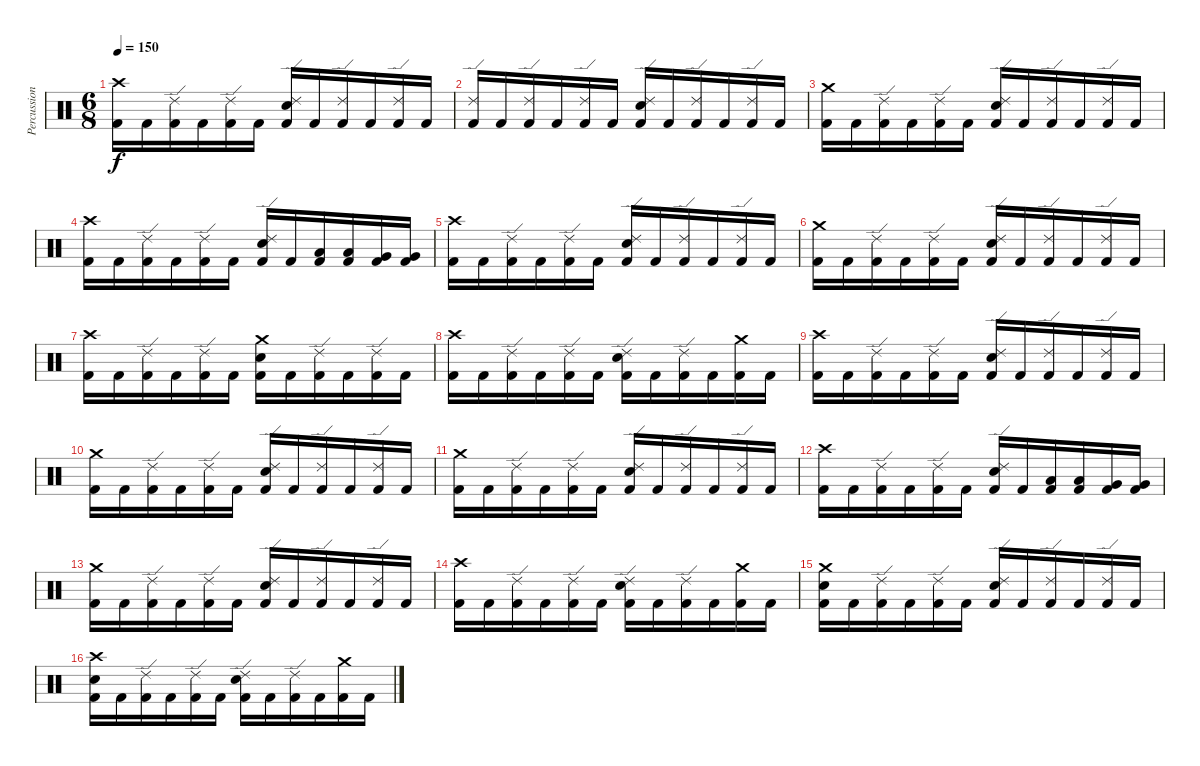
\track ("Percussion" "Percussion") {instrument percussion}
\staff {score}
\articulation defaults
\ts (6 8)
\tempo 150
\clef neutral
\ks c
("Crash high (hit)" "Kick (hit) 2").16{dy f} "Kick (hit) 2".16 ("Ride (edge) 2" "Kick (hit) 2").16 "Kick (hit) 2".16 ("Ride (edge) 2" "Kick (hit) 2").16 "Kick (hit) 2".16 ("Ride (edge) 2" "Electric Snare (hit)" "Kick (hit) 2").16 "Kick (hit) 2".16 ("Ride (edge) 2" "Kick (hit) 2").16 "Kick (hit) 2".16 ("Ride (edge) 2" "Kick (hit) 2").16 "Kick (hit) 2".16 |
("Ride (edge) 2" "Kick (hit) 2").16 "Kick (hit) 2".16 ("Ride (edge) 2" "Kick (hit) 2").16 "Kick (hit) 2".16 ("Ride (edge) 2" "Kick (hit) 2").16 "Kick (hit) 2".16 ("Ride (edge) 2" "Electric Snare (hit)" "Kick (hit) 2").16 "Kick (hit) 2".16 ("Ride (edge) 2" "Kick (hit) 2").16 "Kick (hit) 2".16 ("Ride (edge) 2" "Kick (hit) 2").16 "Kick (hit) 2".16 |
("Crash medium (hit)" "Kick (hit) 2").16 "Kick (hit) 2".16 ("Ride (edge) 2" "Kick (hit) 2").16 "Kick (hit) 2".16 ("Ride (edge) 2" "Kick (hit) 2").16 "Kick (hit) 2".16 ("Ride (edge) 2" "Electric Snare (hit)" "Kick (hit) 2").16 "Kick (hit) 2".16 ("Ride (edge) 2" "Kick (hit) 2").16 "Kick (hit) 2".16 ("Ride (edge) 2" "Kick (hit) 2").16 "Kick (hit) 2".16 |
("Crash high (hit)" "Kick (hit) 2").16 "Kick (hit) 2".16 ("Ride (edge) 2" "Kick (hit) 2").16 "Kick (hit) 2".16 ("Ride (edge) 2" "Kick (hit) 2").16 "Kick (hit) 2".16 ("Ride (edge) 2" "Electric Snare (hit)" "Kick (hit) 2").16 "Kick (hit) 2".16 ("Low Tom (hit)" "Kick (hit) 2").16 ("Low Tom (hit)" "Kick (hit) 2").16 ("Very Low Tom (hit)" "Kick (hit) 2").16 ("Very Low Tom (hit)" "Kick (hit) 2").16 |
("Crash high (hit)" "Kick (hit) 2").16 "Kick (hit) 2".16 ("Ride (edge) 2" "Kick (hit) 2").16 "Kick (hit) 2".16 ("Ride (edge) 2" "Kick (hit) 2").16 "Kick (hit) 2".16 ("Ride (edge) 2" "Electric Snare (hit)" "Kick (hit) 2").16 "Kick (hit) 2".16 ("Ride (edge) 2" "Kick (hit) 2").16 "Kick (hit) 2".16 ("Ride (edge) 2" "Kick (hit) 2").16 "Kick (hit) 2".16 |
("Crash medium (hit)" "Kick (hit) 2").16 "Kick (hit) 2".16 ("Ride (edge) 2" "Kick (hit) 2").16 "Kick (hit) 2".16 ("Ride (edge) 2" "Kick (hit) 2").16 "Kick (hit) 2".16 ("Ride (edge) 2" "Electric Snare (hit)" "Kick (hit) 2").16 "Kick (hit) 2".16 ("Ride (edge) 2" "Kick (hit) 2").16 "Kick (hit) 2".16 ("Ride (edge) 2" "Kick (hit) 2").16 "Kick (hit) 2".16 |
("Crash high (hit)" "Kick (hit) 2").16 "Kick (hit) 2".16 ("Ride (edge) 2" "Kick (hit) 2").16 "Kick (hit) 2".16 ("Ride (edge) 2" "Kick (hit) 2").16 "Kick (hit) 2".16 ("Crash medium (hit)" "Electric Snare (hit)" "Kick (hit) 2").16 "Kick (hit) 2".16 ("Ride (edge) 2" "Kick (hit) 2").16 "Kick (hit) 2".16 ("Ride (edge) 2" "Kick (hit) 2").16 "Kick (hit) 2".16 |
("Crash high (hit)" "Kick (hit) 2").16 "Kick (hit) 2".16 ("Ride (edge) 2" "Kick (hit) 2").16 "Kick (hit) 2".16 ("Ride (edge) 2" "Kick (hit) 2").16 "Kick (hit) 2".16 ("Ride (edge) 2" "Electric Snare (hit)" "Kick (hit) 2").16 "Kick (hit) 2".16 ("Ride (edge) 2" "Kick (hit) 2").16 "Kick (hit) 2".16 ("Crash medium (hit)" "Kick (hit) 2").16 "Kick (hit) 2".16 |
("Crash high (hit)" "Kick (hit) 2").16 "Kick (hit) 2".16 ("Ride (edge) 2" "Kick (hit) 2").16 "Kick (hit) 2".16 ("Ride (edge) 2" "Kick (hit) 2").16 "Kick (hit) 2".16 ("Ride (edge) 2" "Electric Snare (hit)" "Kick (hit) 2").16 "Kick (hit) 2".16 ("Ride (edge) 2" "Kick (hit) 2").16 "Kick (hit) 2".16 ("Ride (edge) 2" "Kick (hit) 2").16 "Kick (hit) 2".16 |
("Crash medium (hit)" "Kick (hit) 2").16 "Kick (hit) 2".16 ("Ride (edge) 2" "Kick (hit) 2").16 "Kick (hit) 2".16 ("Ride (edge) 2" "Kick (hit) 2").16 "Kick (hit) 2".16 ("Ride (edge) 2" "Electric Snare (hit)" "Kick (hit) 2").16 "Kick (hit) 2".16 ("Ride (edge) 2" "Kick (hit) 2").16 "Kick (hit) 2".16 ("Ride (edge) 2" "Kick (hit) 2").16 "Kick (hit) 2".16 |
("Crash medium (hit)" "Kick (hit) 2").16 "Kick (hit) 2".16 ("Ride (edge) 2" "Kick (hit) 2").16 "Kick (hit) 2".16 ("Ride (edge) 2" "Kick (hit) 2").16 "Kick (hit) 2".16 ("Ride (edge) 2" "Electric Snare (hit)" "Kick (hit) 2").16 "Kick (hit) 2".16 ("Ride (edge) 2" "Kick (hit) 2").16 "Kick (hit) 2".16 ("Ride (edge) 2" "Kick (hit) 2").16 "Kick (hit) 2".16 |
("Crash high (hit)" "Kick (hit) 2").16 "Kick (hit) 2".16 ("Ride (edge) 2" "Kick (hit) 2").16 "Kick (hit) 2".16 ("Ride (edge) 2" "Kick (hit) 2").16 "Kick (hit) 2".16 ("Ride (edge) 2" "Electric Snare (hit)" "Kick (hit) 2").16 "Kick (hit) 2".16 ("Low Tom (hit)" "Kick (hit) 2").16 ("Low Tom (hit)" "Kick (hit) 2").16 ("Very Low Tom (hit)" "Kick (hit) 2").16 ("Very Low Tom (hit)" "Kick (hit) 2").16 |
("Crash medium (hit)" "Kick (hit) 2").16 "Kick (hit) 2".16 ("Ride (edge) 2" "Kick (hit) 2").16 "Kick (hit) 2".16 ("Ride (edge) 2" "Kick (hit) 2").16 "Kick (hit) 2".16 ("Ride (edge) 2" "Electric Snare (hit)" "Kick (hit) 2").16 "Kick (hit) 2".16 ("Ride (edge) 2" "Kick (hit) 2").16 "Kick (hit) 2".16 ("Ride (edge) 2" "Kick (hit) 2").16 "Kick (hit) 2".16 |
("Crash high (hit)" "Kick (hit) 2").16 "Kick (hit) 2".16 ("Ride (edge) 2" "Kick (hit) 2").16 "Kick (hit) 2".16 ("Ride (edge) 2" "Kick (hit) 2").16 "Kick (hit) 2".16 ("Ride (edge) 2" "Electric Snare (hit)" "Kick (hit) 2").16 "Kick (hit) 2".16 ("Ride (edge) 2" "Kick (hit) 2").16 "Kick (hit) 2".16 ("Crash medium (hit)" "Kick (hit) 2").16 "Kick (hit) 2".16 |
("Crash medium (hit)" "Electric Snare (hit)" "Kick (hit) 2").16 "Kick (hit) 2".16 ("Ride (edge) 2" "Kick (hit) 2").16 "Kick (hit) 2".16 ("Ride (edge) 2" "Kick (hit) 2").16 "Kick (hit) 2".16 ("Ride (edge) 2" "Electric Snare (hit)" "Kick (hit) 2").16 "Kick (hit) 2".16 ("Ride (edge) 2" "Kick (hit) 2").16 "Kick (hit) 2".16 ("Ride (edge) 2" "Kick (hit) 2").16 "Kick (hit) 2".16 |
("Crash high (hit)" "Electric Snare (hit)" "Kick (hit) 2").16 "Kick (hit) 2".16 ("Ride (edge) 2" "Kick (hit) 2").16 "Kick (hit) 2".16 ("Ride (edge) 2" "Kick (hit) 2").16 "Kick (hit) 2".16 ("Ride (edge) 2" "Electric Snare (hit)" "Kick (hit) 2").16 "Kick (hit) 2".16 ("Ride (edge) 2" "Kick (hit) 2").16 "Kick (hit) 2".16 ("Crash medium (hit)" "Kick (hit) 2").16 "Kick (hit) 2".16
